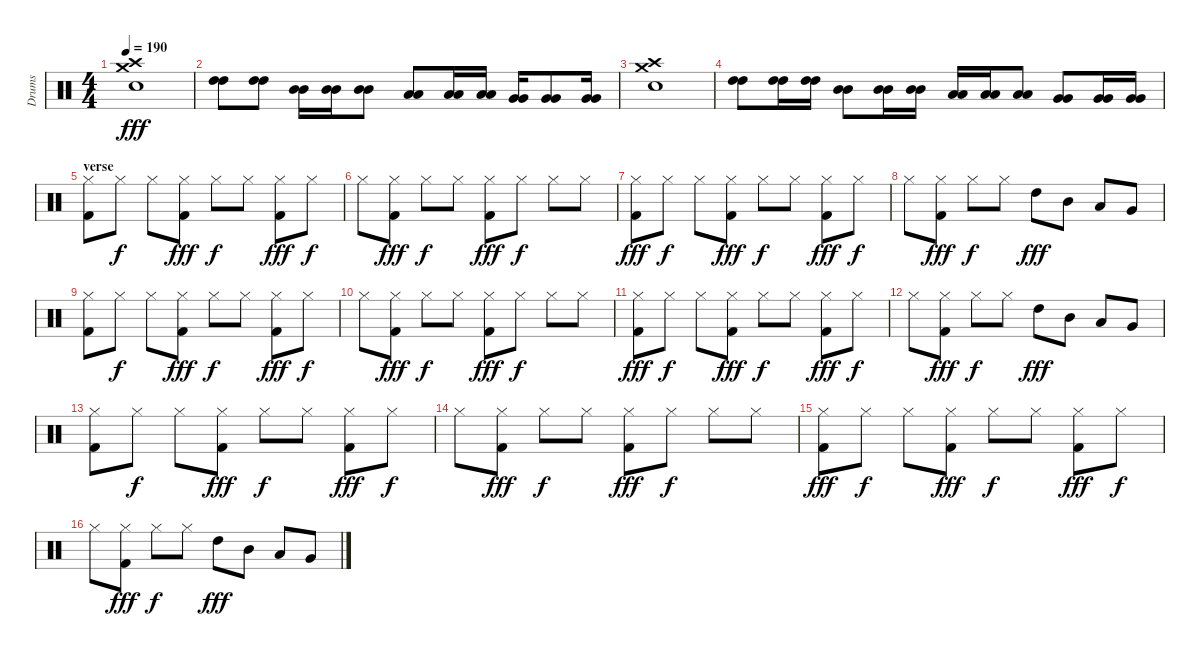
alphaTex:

\track ("Drums" "Drums") {instrument percussion}
\staff {score}
\articulation defaults
\ts (4 4)
\tempo 190
\clef neutral
\ks c
("Crash high (hit)" "Crash medium (hit)" "Electric Snare (hit)").1{dy fff} |
("High Tom (hit)" "High Tom (hit)").8 ("High Tom (hit)" "High Tom (hit)").8 ("Mid Tom (hit)" "Mid Tom (hit)").16 ("Mid Tom (hit)" "Mid Tom (hit)").16 ("Mid Tom (hit)" "Mid Tom (hit)").8 ("Low Tom (hit)" "Low Tom (hit)").8 ("Low Tom (hit)" "Low Tom (hit)").16 ("Low Tom (hit)" "Low Tom (hit)").16 ("Very Low Tom (hit)" "Very Low Tom (hit)").16 ("Very Low Tom (hit)" "Very Low Tom (hit)").8 ("Very Low Tom (hit)" "Very Low Tom (hit)").16 |
("Crash high (hit)" "Crash medium (hit)" "Electric Snare (hit)").1 |
("High Tom (hit)" "High Tom (hit)").8 ("High Tom (hit)" "High Tom (hit)").16 ("High Tom (hit)" "High Tom (hit)").16 ("Mid Tom (hit)" "Mid Tom (hit)").8 ("Mid Tom (hit)" "Mid Tom (hit)").16 ("Mid Tom (hit)" "Mid Tom (hit)").16 ("Low Tom (hit)" "Low Tom (hit)").16 ("Low Tom (hit)" "Low Tom (hit)").16 ("Low Tom (hit)" "Low Tom (hit)").8 ("Very Low Tom (hit)" "Very Low Tom (hit)").8 ("Very Low Tom (hit)" "Very Low Tom (hit)").16 ("Very Low Tom (hit)" "Very Low Tom (hit)").16 |
\section ("" "verse")
("Hi-Hat (closed)" "Kick (hit) 2").8 "Hi-Hat (closed)".8{dy f} "Hi-Hat (closed)".8 ("Hi-Hat (closed)" "Kick (hit) 2").8{dy fff} "Hi-Hat (closed)".8{dy f} "Hi-Hat (closed)".8 ("Hi-Hat (closed)" "Kick (hit) 2").8{dy fff} "Hi-Hat (closed)".8{dy f} |
"Hi-Hat (closed)".8 ("Hi-Hat (closed)" "Kick (hit) 2").8{dy fff} "Hi-Hat (closed)".8{dy f} "Hi-Hat (closed)".8 ("Hi-Hat (closed)" "Kick (hit) 2").8{dy fff} "Hi-Hat (closed)".8{dy f} "Hi-Hat (closed)".8 "Hi-Hat (closed)".8 |
("Hi-Hat (closed)" "Kick (hit) 2").8{dy fff} "Hi-Hat (closed)".8{dy f} "Hi-Hat (closed)".8 ("Hi-Hat (closed)" "Kick (hit) 2").8{dy fff} "Hi-Hat (closed)".8{dy f} "Hi-Hat (closed)".8 ("Hi-Hat (closed)" "Kick (hit) 2").8{dy fff} "Hi-Hat (closed)".8{dy f} |
"Hi-Hat (closed)".8 ("Hi-Hat (closed)" "Kick (hit) 2").8{dy fff} "Hi-Hat (closed)".8{dy f} "Hi-Hat (closed)".8 "High Tom (hit)".8{dy fff} "Mid Tom (hit)".8 "Low Tom (hit)".8 "Very Low Tom (hit)".8 |
("Hi-Hat (closed)" "Kick (hit) 2").8 "Hi-Hat (closed)".8{dy f} "Hi-Hat (closed)".8 ("Hi-Hat (closed)" "Kick (hit) 2").8{dy fff} "Hi-Hat (closed)".8{dy f} "Hi-Hat (closed)".8 ("Hi-Hat (closed)" "Kick (hit) 2").8{dy fff} "Hi-Hat (closed)".8{dy f} |
"Hi-Hat (closed)".8 ("Hi-Hat (closed)" "Kick (hit) 2").8{dy fff} "Hi-Hat (closed)".8{dy f} "Hi-Hat (closed)".8 ("Hi-Hat (closed)" "Kick (hit) 2").8{dy fff} "Hi-Hat (closed)".8{dy f} "Hi-Hat (closed)".8 "Hi-Hat (closed)".8 |
("Hi-Hat (closed)" "Kick (hit) 2").8{dy fff} "Hi-Hat (closed)".8{dy f} "Hi-Hat (closed)".8 ("Hi-Hat (closed)" "Kick (hit) 2").8{dy fff} "Hi-Hat (closed)".8{dy f} "Hi-Hat (closed)".8 ("Hi-Hat (closed)" "Kick (hit) 2").8{dy fff} "Hi-Hat (closed)".8{dy f} |
"Hi-Hat (closed)".8 ("Hi-Hat (closed)" "Kick (hit) 2").8{dy fff} "Hi-Hat (closed)".8{dy f} "Hi-Hat (closed)".8 "High Tom (hit)".8{dy fff} "Mid Tom (hit)".8 "Low Tom (hit)".8 "Very Low Tom (hit)".8 |
("Hi-Hat (closed)" "Kick (hit) 2").8 "Hi-Hat (closed)".8{dy f} "Hi-Hat (closed)".8 ("Hi-Hat (closed)" "Kick (hit) 2").8{dy fff} "Hi-Hat (closed)".8{dy f} "Hi-Hat (closed)".8 ("Hi-Hat (closed)" "Kick (hit) 2").8{dy fff} "Hi-Hat (closed)".8{dy f} |
"Hi-Hat (closed)".8 ("Hi-Hat (closed)" "Kick (hit) 2").8{dy fff} "Hi-Hat (closed)".8{dy f} "Hi-Hat (closed)".8 ("Hi-Hat (closed)" "Kick (hit) 2").8{dy fff} "Hi-Hat (closed)".8{dy f} "Hi-Hat (closed)".8 "Hi-Hat (closed)".8 |
("Hi-Hat (closed)" "Kick (hit) 2").8{dy fff} "Hi-Hat (closed)".8{dy f} "Hi-Hat (closed)".8 ("Hi-Hat (closed)" "Kick (hit) 2").8{dy fff} "Hi-Hat (closed)".8{dy f} "Hi-Hat (closed)".8 ("Hi-Hat (closed)" "Kick (hit) 2").8{dy fff} "Hi-Hat (closed)".8{dy f} |
"Hi-Hat (closed)".8 ("Hi-Hat (closed)" "Kick (hit) 2").8{dy fff} "Hi-Hat (closed)".8{dy f} "Hi-Hat (closed)".8 "High Tom (hit)".8{dy fff} "Mid Tom (hit)".8 "Low Tom (hit)".8 "Very Low Tom (hit)".8
